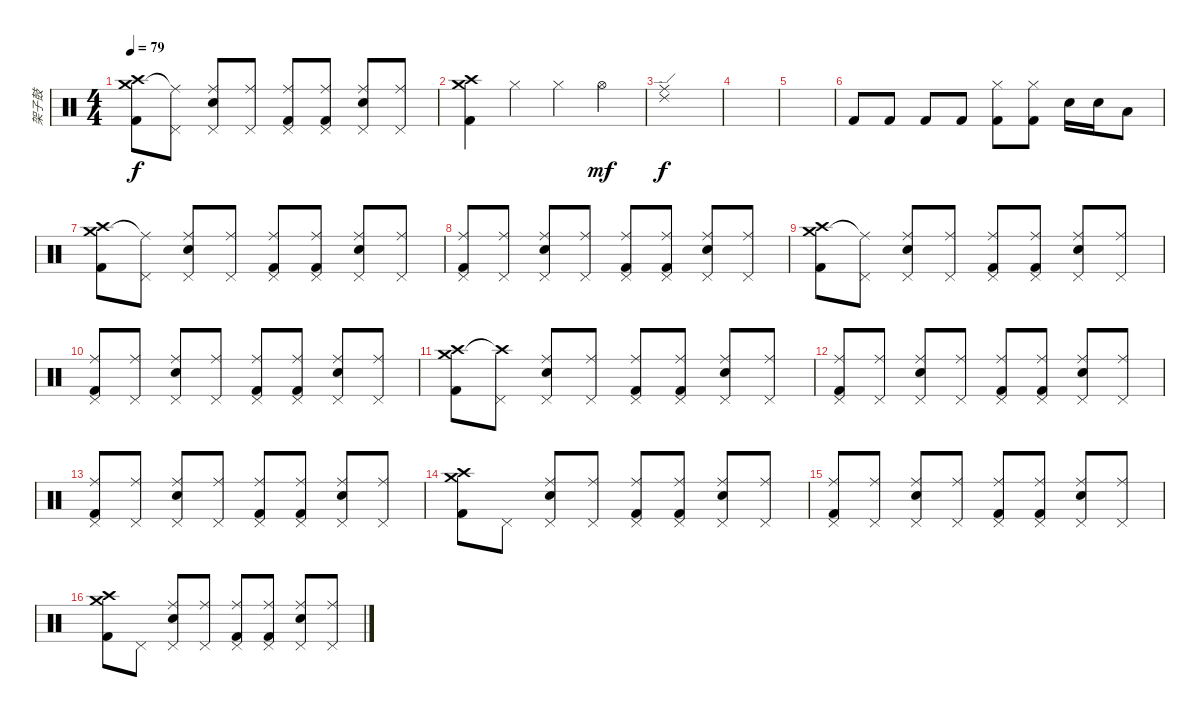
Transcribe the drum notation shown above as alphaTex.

\track ("架子鼓" "架子鼓") {instrument percussion}
\staff {score}
\articulation defaults
\ts (4 4)
\tempo 79
\clef neutral
\ks c
("Crash medium (hit)" "Crash high (hit)" "Kick (hit) 2").8{dy f} ("Ride (middle)"{t} "Pedal Hi-Hat (hit)").8 ("Ride (middle)" "Pedal Hi-Hat (hit)" "Electric Snare (hit)").8 ("Ride (middle)" "Pedal Hi-Hat (hit)").8 ("Ride (middle)" "Pedal Hi-Hat (hit)" "Kick (hit) 2").8 ("Ride (middle)" "Pedal Hi-Hat (hit)" "Kick (hit) 2").8 ("Ride (middle)" "Pedal Hi-Hat (hit)" "Electric Snare (hit)").8 ("Ride (middle)" "Pedal Hi-Hat (hit)").8 |
("Crash medium (hit)" "Crash high (hit)" "Kick (hit) 2").4 "Hi-Hat (closed)".4 "Hi-Hat (closed)".4 "Hi-Hat (open)".4{dy mf} |
("Ride (edge) 2" "Ride (middle)").1{dy f} |
|
|
"Kick (hit) 2".8 "Kick (hit) 2".8 "Kick (hit) 2".8 "Kick (hit) 2".8 ("Hi-Hat (closed)" "Kick (hit) 2").8 ("Hi-Hat (closed)" "Kick (hit) 2").8 "Electric Snare (hit)".16 "Electric Snare (hit)".16 "Low Tom (hit)".8 |
("Crash medium (hit)" "Crash high (hit)" "Kick (hit) 2").8 ("Ride (middle)"{t} "Pedal Hi-Hat (hit)").8 ("Ride (middle)" "Pedal Hi-Hat (hit)" "Electric Snare (hit)").8 ("Ride (middle)" "Pedal Hi-Hat (hit)").8 ("Ride (middle)" "Pedal Hi-Hat (hit)" "Kick (hit) 2").8 ("Ride (middle)" "Pedal Hi-Hat (hit)" "Kick (hit) 2").8 ("Ride (middle)" "Pedal Hi-Hat (hit)" "Electric Snare (hit)").8 ("Ride (middle)" "Pedal Hi-Hat (hit)").8 |
("Ride (middle)" "Pedal Hi-Hat (hit)" "Kick (hit) 2").8 ("Ride (middle)" "Pedal Hi-Hat (hit)").8 ("Ride (middle)" "Pedal Hi-Hat (hit)" "Electric Snare (hit)").8 ("Ride (middle)" "Pedal Hi-Hat (hit)").8 ("Ride (middle)" "Pedal Hi-Hat (hit)" "Kick (hit) 2").8 ("Ride (middle)" "Pedal Hi-Hat (hit)" "Kick (hit) 2").8 ("Ride (middle)" "Pedal Hi-Hat (hit)" "Electric Snare (hit)").8 ("Ride (middle)" "Pedal Hi-Hat (hit)").8 |
("Crash medium (hit)" "Crash high (hit)" "Kick (hit) 2").8 ("Ride (middle)"{t} "Pedal Hi-Hat (hit)").8 ("Ride (middle)" "Pedal Hi-Hat (hit)" "Electric Snare (hit)").8 ("Ride (middle)" "Pedal Hi-Hat (hit)").8 ("Ride (middle)" "Pedal Hi-Hat (hit)" "Kick (hit) 2").8 ("Ride (middle)" "Pedal Hi-Hat (hit)" "Kick (hit) 2").8 ("Ride (middle)" "Pedal Hi-Hat (hit)" "Electric Snare (hit)").8 ("Ride (middle)" "Pedal Hi-Hat (hit)").8 |
("Ride (middle)" "Pedal Hi-Hat (hit)" "Kick (hit) 2").8 ("Ride (middle)" "Pedal Hi-Hat (hit)").8 ("Ride (middle)" "Pedal Hi-Hat (hit)" "Electric Snare (hit)").8 ("Ride (middle)" "Pedal Hi-Hat (hit)").8 ("Ride (middle)" "Pedal Hi-Hat (hit)" "Kick (hit) 2").8 ("Ride (middle)" "Pedal Hi-Hat (hit)" "Kick (hit) 2").8 ("Ride (middle)" "Pedal Hi-Hat (hit)" "Electric Snare (hit)").8 ("Ride (middle)" "Pedal Hi-Hat (hit)").8 |
("Crash medium (hit)" "Crash high (hit)" "Kick (hit) 2").8 ("Crash high (hit)"{t} "Pedal Hi-Hat (hit)").8 ("Ride (middle)" "Pedal Hi-Hat (hit)" "Electric Snare (hit)").8 ("Ride (middle)" "Pedal Hi-Hat (hit)").8 ("Ride (middle)" "Pedal Hi-Hat (hit)" "Kick (hit) 2").8 ("Ride (middle)" "Pedal Hi-Hat (hit)" "Kick (hit) 2").8 ("Ride (middle)" "Pedal Hi-Hat (hit)" "Electric Snare (hit)").8 ("Ride (middle)" "Pedal Hi-Hat (hit)").8 |
("Ride (middle)" "Pedal Hi-Hat (hit)" "Kick (hit) 2").8 ("Ride (middle)" "Pedal Hi-Hat (hit)").8 ("Ride (middle)" "Pedal Hi-Hat (hit)" "Electric Snare (hit)").8 ("Ride (middle)" "Pedal Hi-Hat (hit)").8 ("Ride (middle)" "Pedal Hi-Hat (hit)" "Kick (hit) 2").8 ("Ride (middle)" "Pedal Hi-Hat (hit)" "Kick (hit) 2").8 ("Ride (middle)" "Pedal Hi-Hat (hit)" "Electric Snare (hit)").8 ("Ride (middle)" "Pedal Hi-Hat (hit)").8 |
("Ride (middle)" "Pedal Hi-Hat (hit)" "Kick (hit) 2").8 ("Ride (middle)" "Pedal Hi-Hat (hit)").8 ("Ride (middle)" "Pedal Hi-Hat (hit)" "Electric Snare (hit)").8 ("Ride (middle)" "Pedal Hi-Hat (hit)").8 ("Ride (middle)" "Pedal Hi-Hat (hit)" "Kick (hit) 2").8 ("Ride (middle)" "Pedal Hi-Hat (hit)" "Kick (hit) 2").8 ("Ride (middle)" "Pedal Hi-Hat (hit)" "Electric Snare (hit)").8 ("Ride (middle)" "Pedal Hi-Hat (hit)").8 |
("Crash medium (hit)" "Crash high (hit)" "Kick (hit) 2").8 "Pedal Hi-Hat (hit)".8 ("Ride (middle)" "Pedal Hi-Hat (hit)" "Electric Snare (hit)").8 ("Ride (middle)" "Pedal Hi-Hat (hit)").8 ("Ride (middle)" "Pedal Hi-Hat (hit)" "Kick (hit) 2").8 ("Ride (middle)" "Pedal Hi-Hat (hit)" "Kick (hit) 2").8 ("Ride (middle)" "Pedal Hi-Hat (hit)" "Electric Snare (hit)").8 ("Ride (middle)" "Pedal Hi-Hat (hit)").8 |
("Ride (middle)" "Pedal Hi-Hat (hit)" "Kick (hit) 2").8 ("Ride (middle)" "Pedal Hi-Hat (hit)").8 ("Ride (middle)" "Pedal Hi-Hat (hit)" "Electric Snare (hit)").8 ("Ride (middle)" "Pedal Hi-Hat (hit)").8 ("Ride (middle)" "Pedal Hi-Hat (hit)" "Kick (hit) 2").8 ("Ride (middle)" "Pedal Hi-Hat (hit)" "Kick (hit) 2").8 ("Ride (middle)" "Pedal Hi-Hat (hit)" "Electric Snare (hit)").8 ("Ride (middle)" "Pedal Hi-Hat (hit)").8 |
("Crash high (hit)" "Crash medium (hit)" "Kick (hit) 2").8 "Pedal Hi-Hat (hit)".8 ("Ride (middle)" "Pedal Hi-Hat (hit)" "Electric Snare (hit)").8 ("Ride (middle)" "Pedal Hi-Hat (hit)").8 ("Ride (middle)" "Pedal Hi-Hat (hit)" "Kick (hit) 2").8 ("Ride (middle)" "Pedal Hi-Hat (hit)" "Kick (hit) 2").8 ("Ride (middle)" "Pedal Hi-Hat (hit)" "Electric Snare (hit)").8 ("Ride (middle)" "Pedal Hi-Hat (hit)").8
